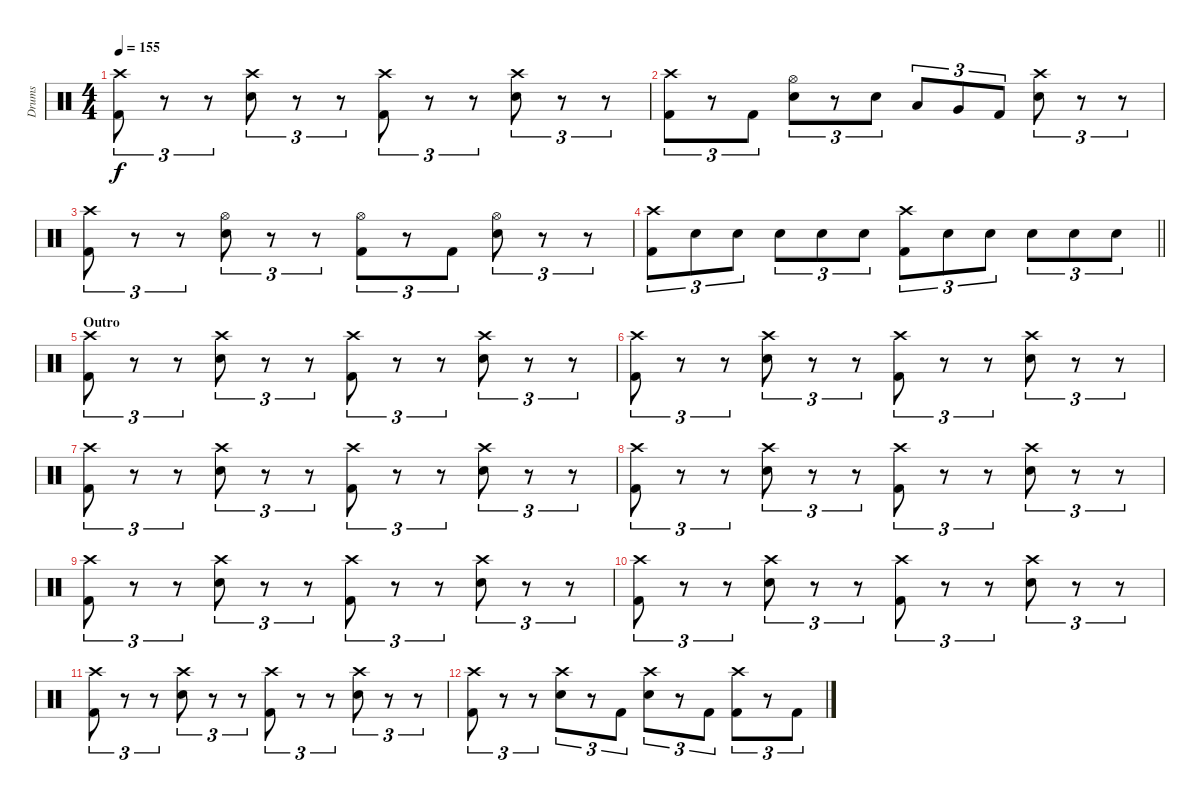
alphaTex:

\track ("Drums" "Drums") {instrument percussion}
\staff {score}
\articulation defaults
\ts (4 4)
\tempo 155
\clef neutral
\ks c
("Crash high (hit)" "Kick (hit) 2").8{tu (3 2) dy f} r.8{tu (3 2)} r.8{tu (3 2)} ("Crash high (hit)" "Snare (hit) 2").8{tu (3 2)} r.8{tu (3 2)} r.8{tu (3 2)} ("Crash high (hit)" "Kick (hit) 2").8{tu (3 2)} r.8{tu (3 2)} r.8{tu (3 2)} ("Crash high (hit)" "Snare (hit) 2").8{tu (3 2)} r.8{tu (3 2)} r.8{tu (3 2)} |
("Crash high (hit)" "Kick (hit) 2").8{tu (3 2)} r.8{tu (3 2)} "Kick (hit) 2".8{tu (3 2)} ("Hi-Hat (open)" "Snare (hit) 2").8{tu (3 2)} r.8{tu (3 2)} "Snare (hit) 2".8{tu (3 2)} "Low Tom (hit)".8{tu (3 2)} "Very Low Tom (hit)".8{tu (3 2)} "Kick (hit) 2".8{tu (3 2)} ("Crash high (hit)" "Snare (hit) 2").8{tu (3 2)} r.8{tu (3 2)} r.8{tu (3 2)} |
("Crash high (hit)" "Kick (hit) 2").8{tu (3 2)} r.8{tu (3 2)} r.8{tu (3 2)} ("Hi-Hat (open)" "Snare (hit) 2").8{tu (3 2)} r.8{tu (3 2)} r.8{tu (3 2)} ("Hi-Hat (open)" "Kick (hit) 2").8{tu (3 2)} r.8{tu (3 2)} "Kick (hit) 2".8{tu (3 2)} ("Hi-Hat (open)" "Snare (hit) 2").8{tu (3 2)} r.8{tu (3 2)} r.8{tu (3 2)} |
\barLineRight lightlight
("Crash high (hit)" "Kick (hit) 2").8{tu (3 2)} "Snare (hit) 2".8{tu (3 2)} "Snare (hit) 2".8{tu (3 2)} "Snare (hit) 2".8{tu (3 2)} "Snare (hit) 2".8{tu (3 2)} "Snare (hit) 2".8{tu (3 2)} ("Crash high (hit)" "Kick (hit) 2").8{tu (3 2)} "Snare (hit) 2".8{tu (3 2)} "Snare (hit) 2".8{tu (3 2)} "Snare (hit) 2".8{tu (3 2)} "Snare (hit) 2".8{tu (3 2)} "Snare (hit) 2".8{tu (3 2)} |
\section ("" "Outro")
("Crash high (hit)" "Kick (hit) 2").8{tu (3 2)} r.8{tu (3 2)} r.8{tu (3 2)} ("Crash high (hit)" "Snare (hit) 2").8{tu (3 2)} r.8{tu (3 2)} r.8{tu (3 2)} ("Crash high (hit)" "Kick (hit) 2").8{tu (3 2)} r.8{tu (3 2)} r.8{tu (3 2)} ("Crash high (hit)" "Snare (hit) 2").8{tu (3 2)} r.8{tu (3 2)} r.8{tu (3 2)} |
("Crash high (hit)" "Kick (hit) 2").8{tu (3 2)} r.8{tu (3 2)} r.8{tu (3 2)} ("Crash high (hit)" "Snare (hit) 2").8{tu (3 2)} r.8{tu (3 2)} r.8{tu (3 2)} ("Crash high (hit)" "Kick (hit) 2").8{tu (3 2)} r.8{tu (3 2)} r.8{tu (3 2)} ("Crash high (hit)" "Snare (hit) 2").8{tu (3 2)} r.8{tu (3 2)} r.8{tu (3 2)} |
("Crash high (hit)" "Kick (hit) 2").8{tu (3 2)} r.8{tu (3 2)} r.8{tu (3 2)} ("Crash high (hit)" "Snare (hit) 2").8{tu (3 2)} r.8{tu (3 2)} r.8{tu (3 2)} ("Crash high (hit)" "Kick (hit) 2").8{tu (3 2)} r.8{tu (3 2)} r.8{tu (3 2)} ("Crash high (hit)" "Snare (hit) 2").8{tu (3 2)} r.8{tu (3 2)} r.8{tu (3 2)} |
("Crash high (hit)" "Kick (hit) 2").8{tu (3 2)} r.8{tu (3 2)} r.8{tu (3 2)} ("Crash high (hit)" "Snare (hit) 2").8{tu (3 2)} r.8{tu (3 2)} r.8{tu (3 2)} ("Crash high (hit)" "Kick (hit) 2").8{tu (3 2)} r.8{tu (3 2)} r.8{tu (3 2)} ("Crash high (hit)" "Snare (hit) 2").8{tu (3 2)} r.8{tu (3 2)} r.8{tu (3 2)} |
("Crash high (hit)" "Kick (hit) 2").8{tu (3 2)} r.8{tu (3 2)} r.8{tu (3 2)} ("Crash high (hit)" "Snare (hit) 2").8{tu (3 2)} r.8{tu (3 2)} r.8{tu (3 2)} ("Crash high (hit)" "Kick (hit) 2").8{tu (3 2)} r.8{tu (3 2)} r.8{tu (3 2)} ("Crash high (hit)" "Snare (hit) 2").8{tu (3 2)} r.8{tu (3 2)} r.8{tu (3 2)} |
("Crash high (hit)" "Kick (hit) 2").8{tu (3 2)} r.8{tu (3 2)} r.8{tu (3 2)} ("Crash high (hit)" "Snare (hit) 2").8{tu (3 2)} r.8{tu (3 2)} r.8{tu (3 2)} ("Crash high (hit)" "Kick (hit) 2").8{tu (3 2)} r.8{tu (3 2)} r.8{tu (3 2)} ("Crash high (hit)" "Snare (hit) 2").8{tu (3 2)} r.8{tu (3 2)} r.8{tu (3 2)} |
("Crash high (hit)" "Kick (hit) 2").8{tu (3 2)} r.8{tu (3 2)} r.8{tu (3 2)} ("Crash high (hit)" "Snare (hit) 2").8{tu (3 2)} r.8{tu (3 2)} r.8{tu (3 2)} ("Crash high (hit)" "Kick (hit) 2").8{tu (3 2)} r.8{tu (3 2)} r.8{tu (3 2)} ("Crash high (hit)" "Snare (hit) 2").8{tu (3 2)} r.8{tu (3 2)} r.8{tu (3 2)} |
("Crash high (hit)" "Kick (hit) 2").8{tu (3 2)} r.8{tu (3 2)} r.8{tu (3 2)} ("Crash high (hit)" "Snare (hit) 2").8{tu (3 2)} r.8{tu (3 2)} "Kick (hit) 2".8{tu (3 2)} ("Crash high (hit)" "Snare (hit) 2").8{tu (3 2)} r.8{tu (3 2)} "Kick (hit) 2".8{tu (3 2)} ("Crash high (hit)" "Kick (hit) 2").8{tu (3 2)} r.8{tu (3 2)} "Kick (hit) 2".8{tu (3 2)}
